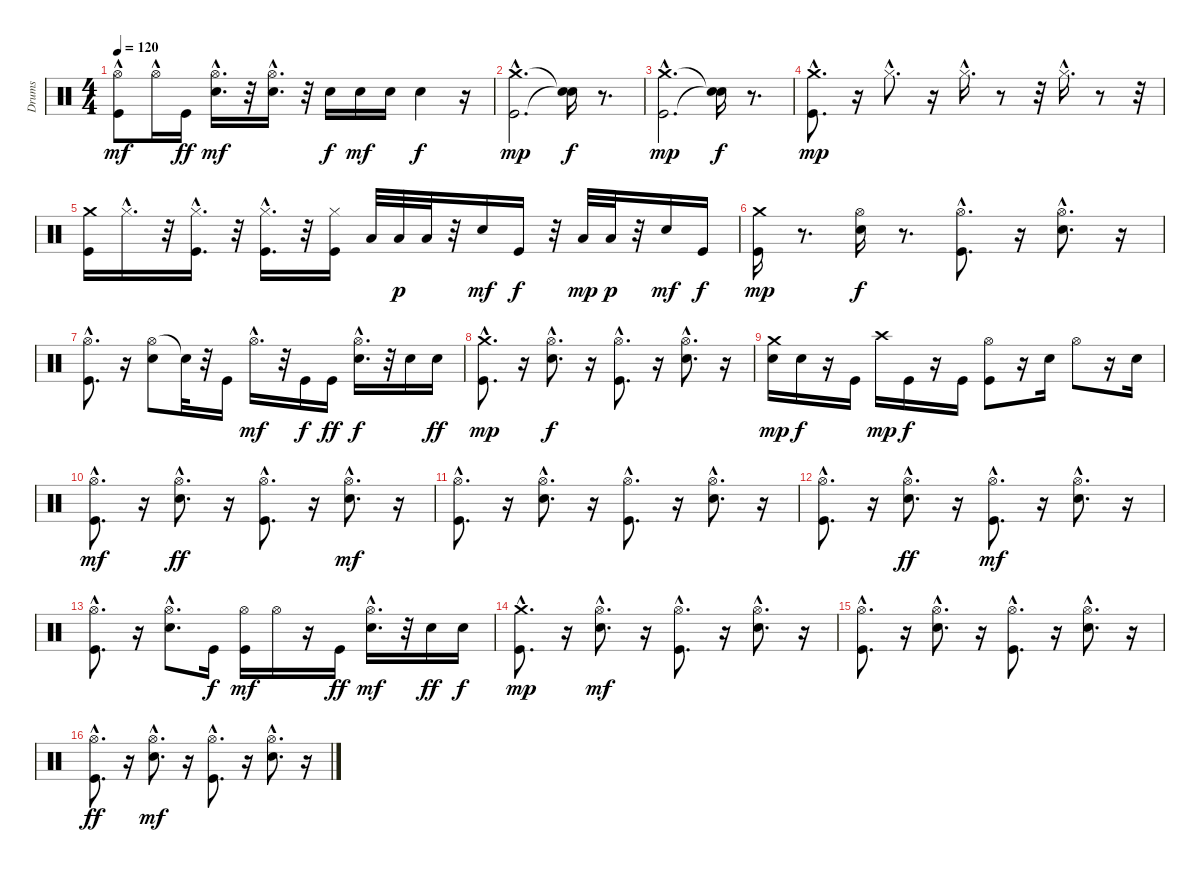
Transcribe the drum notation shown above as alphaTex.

\track ("Drums" "Drums") {instrument percussion}
\staff {score}
\articulation defaults
\ts (4 4)
\tempo 120
\clef neutral
\ks c
("Hi-Hat (open)"{hac} "Kick (hit)").8{dy mf} "Hi-Hat (open)"{hac}.16 "Kick (hit)".16{dy ff} ("Hi-Hat (open)"{hac} "Electric Snare (hit)"{hac}).16{d dy mf} r.32 ("Hi-Hat (open)"{hac} "Electric Snare (hit)"{hac}).16{d} r.32 "Electric Snare (hit)".16{dy f} "Electric Snare (hit)".16{dy mf} "Electric Snare (hit)".16 "Electric Snare (hit)".4{dy f} r.16 |
("Kick (hit)"{hac} "Crash medium (hit)"{hac}).2{d dy mp} ("Snare (hit)"{t} "Snare (hit)"{t}).16{dy f} r.8{d} |
("Kick (hit)"{hac} "Crash medium (hit)"{hac}).2{d dy mp} ("Snare (hit)"{t} "Snare (hit)"{t}).16{dy f} r.8{d} |
("Kick (hit)"{hac} "Crash medium (hit)"{hac}).8{d dy mp} r.16 "Hi-Hat (closed)"{hac}.8{d} r.16 "Hi-Hat (closed)"{hac}.16{d} r.8 r.32 "Hi-Hat (closed)"{hac}.16{d} r.8 r.32 |
("Kick (hit)" "Crash medium (hit)").16 "Hi-Hat (closed)"{hac}.16{d} r.32 ("Kick (hit)" "Hi-Hat (closed)"{hac}).16{d} r.32 ("Kick (hit)" "Hi-Hat (closed)"{hac}).16{d} r.32 ("Kick (hit)" "Hi-Hat (closed)").16 "Low Tom (hit)".32 "Low Tom (hit)".32{dy p} "Low Tom (hit)".32 r.32 "Electric Snare (hit)".16{dy mf} "Kick (hit)".16{dy f} r.32 "Low Tom (hit)".32{dy mp} "Low Tom (hit)".32{dy p} r.32 "Electric Snare (hit)".16{dy mf} "Kick (hit)".16{dy f} |
("Kick (hit)" "Crash medium (hit)").16{dy mp} r.8{d} ("Hi-Hat (open)" "Electric Snare (hit)").16{dy f} r.8{d} ("Hi-Hat (open)"{hac} "Kick (hit)").8{d} r.16 ("Hi-Hat (open)"{hac} "Electric Snare (hit)").8{d} r.16 |
("Hi-Hat (open)"{hac} "Kick (hit)").8{d} r.16 ("Hi-Hat (open)" "Electric Snare (hit)").8 "Snare (hit)"{t}.32 r.32 "Kick (hit)".16 "Hi-Hat (open)"{hac}.16{d dy mf} r.32 "Kick (hit)".16{dy f} "Kick (hit)".16{dy ff} ("Hi-Hat (open)"{hac} "Electric Snare (hit)").16{d dy f} r.32 "Electric Snare (hit)".16 "Electric Snare (hit)".16{dy ff} |
("Kick (hit)"{hac} "Crash medium (hit)").8{d dy mp} r.16 ("Hi-Hat (open)"{hac} "Electric Snare (hit)").8{d dy f} r.16 ("Hi-Hat (open)"{hac} "Kick (hit)").8{d} r.16 ("Hi-Hat (open)"{hac} "Electric Snare (hit)").8{d} r.16 |
("Electric Snare (hit)" "Crash medium (hit)").16{dy mp} "Electric Snare (hit)".16{dy f} r.16 "Kick (hit)".16 "Crash high (hit)".16{dy mp} "Kick (hit)".16{dy f} r.16 "Kick (hit)".16 ("Hi-Hat (open)" "Kick (hit)").8 r.16 "Electric Snare (hit)".16 "Hi-Hat (open)".8 r.16 "Electric Snare (hit)".16 |
("Hi-Hat (open)"{hac} "Kick (hit)"{hac}).8{d dy mf} r.16 ("Hi-Hat (open)"{hac} "Electric Snare (hit)"{hac}).8{d dy ff} r.16 ("Hi-Hat (open)"{hac} "Kick (hit)"{hac}).8{d} r.16 ("Hi-Hat (open)"{hac} "Electric Snare (hit)"{hac}).8{d dy mf} r.16 |
("Hi-Hat (open)"{hac} "Kick (hit)"{hac}).8{d} r.16 ("Hi-Hat (open)"{hac} "Electric Snare (hit)"{hac}).8{d} r.16 ("Hi-Hat (open)"{hac} "Kick (hit)"{hac}).8{d} r.16 ("Hi-Hat (open)"{hac} "Electric Snare (hit)"{hac}).8{d} r.16 |
("Hi-Hat (open)"{hac} "Kick (hit)").8{d} r.16 ("Hi-Hat (open)"{hac} "Electric Snare (hit)"{hac}).8{d dy ff} r.16 ("Hi-Hat (open)"{hac} "Kick (hit)"{hac}).8{d dy mf} r.16 ("Hi-Hat (open)"{hac} "Electric Snare (hit)"{hac}).8{d} r.16 |
("Hi-Hat (open)"{hac} "Kick (hit)").8{d} r.16 ("Hi-Hat (open)" "Electric Snare (hit)"{hac}).8{d} "Kick (hit)".16{dy f} ("Hi-Hat (open)" "Kick (hit)").16{dy mf} "Hi-Hat (open)".16 r.16 "Kick (hit)".16{dy ff} ("Hi-Hat (open)"{hac} "Electric Snare (hit)"{hac}).16{d dy mf} r.32 "Electric Snare (hit)".16{dy ff} "Electric Snare (hit)".16{dy f} |
("Kick (hit)"{hac} "Crash medium (hit)"{hac}).8{d dy mp} r.16 ("Hi-Hat (open)"{hac} "Electric Snare (hit)").8{d dy mf} r.16 ("Hi-Hat (open)"{hac} "Kick (hit)").8{d} r.16 ("Hi-Hat (open)"{hac} "Electric Snare (hit)").8{d} r.16 |
("Hi-Hat (open)"{hac} "Kick (hit)").8{d} r.16 ("Hi-Hat (open)"{hac} "Electric Snare (hit)").8{d} r.16 ("Hi-Hat (open)"{hac} "Kick (hit)").8{d} r.16 ("Hi-Hat (open)"{hac} "Electric Snare (hit)").8{d} r.16 |
("Hi-Hat (open)"{hac} "Kick (hit)").8{d dy ff} r.16 ("Hi-Hat (open)"{hac} "Electric Snare (hit)").8{d dy mf} r.16 ("Hi-Hat (open)"{hac} "Kick (hit)").8{d} r.16 ("Hi-Hat (open)"{hac} "Electric Snare (hit)").8{d} r.16
